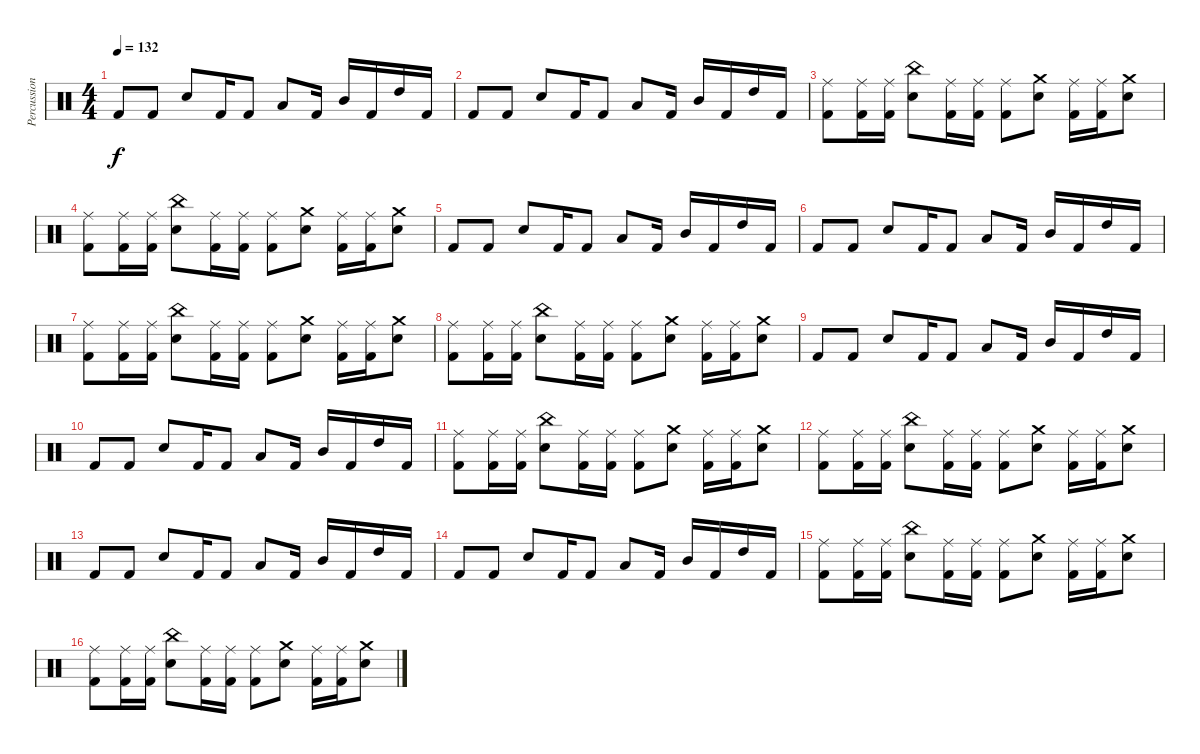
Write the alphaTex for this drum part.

\track ("Percussion" "Percussion") {instrument percussion}
\staff {score}
\articulation defaults
\ts (4 4)
\tempo 132
\clef neutral
\ks c "Kick (hit) 2".8{dy f} "Kick (hit) 2".8 "Electric Snare (hit)".8 "Kick (hit) 2".16 "Kick (hit) 2".8 "Low Tom (hit)".8 "Kick (hit) 2".16 "Mid Tom (hit)".16 "Kick (hit) 2".16 "High Tom (hit)".16 "Kick (hit) 2".16
|
"Kick (hit) 2".8 "Kick (hit) 2".8 "Electric Snare (hit)".8 "Kick (hit) 2".16 "Kick (hit) 2".8 "Low Tom (hit)".8 "Kick (hit) 2".16 "Mid Tom (hit)".16 "Kick (hit) 2".16 "High Tom (hit)".16 "Kick (hit) 2".16 |
("Ride (middle)" "Kick (hit) 2").8 ("Ride (middle)" "Kick (hit) 2").16 ("Ride (middle)" "Kick (hit) 2").16 ("China (hit)" "Electric Snare (hit)").8 ("Ride (middle)" "Kick (hit) 2").16 ("Ride (middle)" "Kick (hit) 2").16 ("Ride (middle)" "Kick (hit) 2").8 ("Crash medium (hit)" "Electric Snare (hit)").8 ("Ride (middle)" "Kick (hit) 2").16 ("Ride (middle)" "Kick (hit) 2").16 ("Crash medium (hit)" "Electric Snare (hit)").8 |
("Ride (middle)" "Kick (hit) 2").8 ("Ride (middle)" "Kick (hit) 2").16 ("Ride (middle)" "Kick (hit) 2").16 ("China (hit)" "Electric Snare (hit)").8 ("Ride (middle)" "Kick (hit) 2").16 ("Ride (middle)" "Kick (hit) 2").16 ("Ride (middle)" "Kick (hit) 2").8 ("Crash medium (hit)" "Electric Snare (hit)").8 ("Ride (middle)" "Kick (hit) 2").16 ("Ride (middle)" "Kick (hit) 2").16 ("Crash medium (hit)" "Electric Snare (hit)").8 |
"Kick (hit) 2".8 "Kick (hit) 2".8 "Electric Snare (hit)".8 "Kick (hit) 2".16 "Kick (hit) 2".8 "Low Tom (hit)".8 "Kick (hit) 2".16 "Mid Tom (hit)".16 "Kick (hit) 2".16 "High Tom (hit)".16 "Kick (hit) 2".16 |
"Kick (hit) 2".8 "Kick (hit) 2".8 "Electric Snare (hit)".8 "Kick (hit) 2".16 "Kick (hit) 2".8 "Low Tom (hit)".8 "Kick (hit) 2".16 "Mid Tom (hit)".16 "Kick (hit) 2".16 "High Tom (hit)".16 "Kick (hit) 2".16 |
("Ride (middle)" "Kick (hit) 2").8 ("Ride (middle)" "Kick (hit) 2").16 ("Ride (middle)" "Kick (hit) 2").16 ("China (hit)" "Electric Snare (hit)").8 ("Ride (middle)" "Kick (hit) 2").16 ("Ride (middle)" "Kick (hit) 2").16 ("Ride (middle)" "Kick (hit) 2").8 ("Crash medium (hit)" "Electric Snare (hit)").8 ("Ride (middle)" "Kick (hit) 2").16 ("Ride (middle)" "Kick (hit) 2").16 ("Crash medium (hit)" "Electric Snare (hit)").8 |
("Ride (middle)" "Kick (hit) 2").8 ("Ride (middle)" "Kick (hit) 2").16 ("Ride (middle)" "Kick (hit) 2").16 ("China (hit)" "Electric Snare (hit)").8 ("Ride (middle)" "Kick (hit) 2").16 ("Ride (middle)" "Kick (hit) 2").16 ("Ride (middle)" "Kick (hit) 2").8 ("Crash medium (hit)" "Electric Snare (hit)").8 ("Ride (middle)" "Kick (hit) 2").16 ("Ride (middle)" "Kick (hit) 2").16 ("Crash medium (hit)" "Electric Snare (hit)").8 |
"Kick (hit) 2".8 "Kick (hit) 2".8 "Electric Snare (hit)".8 "Kick (hit) 2".16 "Kick (hit) 2".8 "Low Tom (hit)".8 "Kick (hit) 2".16 "Mid Tom (hit)".16 "Kick (hit) 2".16 "High Tom (hit)".16 "Kick (hit) 2".16 |
"Kick (hit) 2".8 "Kick (hit) 2".8 "Electric Snare (hit)".8 "Kick (hit) 2".16 "Kick (hit) 2".8 "Low Tom (hit)".8 "Kick (hit) 2".16 "Mid Tom (hit)".16 "Kick (hit) 2".16 "High Tom (hit)".16 "Kick (hit) 2".16 |
("Ride (middle)" "Kick (hit) 2").8 ("Ride (middle)" "Kick (hit) 2").16 ("Ride (middle)" "Kick (hit) 2").16 ("China (hit)" "Electric Snare (hit)").8 ("Ride (middle)" "Kick (hit) 2").16 ("Ride (middle)" "Kick (hit) 2").16 ("Ride (middle)" "Kick (hit) 2").8 ("Crash medium (hit)" "Electric Snare (hit)").8 ("Ride (middle)" "Kick (hit) 2").16 ("Ride (middle)" "Kick (hit) 2").16 ("Crash medium (hit)" "Electric Snare (hit)").8 |
("Ride (middle)" "Kick (hit) 2").8 ("Ride (middle)" "Kick (hit) 2").16 ("Ride (middle)" "Kick (hit) 2").16 ("China (hit)" "Electric Snare (hit)").8 ("Ride (middle)" "Kick (hit) 2").16 ("Ride (middle)" "Kick (hit) 2").16 ("Ride (middle)" "Kick (hit) 2").8 ("Crash medium (hit)" "Electric Snare (hit)").8 ("Ride (middle)" "Kick (hit) 2").16 ("Ride (middle)" "Kick (hit) 2").16 ("Crash medium (hit)" "Electric Snare (hit)").8 |
"Kick (hit) 2".8 "Kick (hit) 2".8 "Electric Snare (hit)".8 "Kick (hit) 2".16 "Kick (hit) 2".8 "Low Tom (hit)".8 "Kick (hit) 2".16 "Mid Tom (hit)".16 "Kick (hit) 2".16 "High Tom (hit)".16 "Kick (hit) 2".16 |
"Kick (hit) 2".8 "Kick (hit) 2".8 "Electric Snare (hit)".8 "Kick (hit) 2".16 "Kick (hit) 2".8 "Low Tom (hit)".8 "Kick (hit) 2".16 "Mid Tom (hit)".16 "Kick (hit) 2".16 "High Tom (hit)".16 "Kick (hit) 2".16 |
("Ride (middle)" "Kick (hit) 2").8 ("Ride (middle)" "Kick (hit) 2").16 ("Ride (middle)" "Kick (hit) 2").16 ("China (hit)" "Electric Snare (hit)").8 ("Ride (middle)" "Kick (hit) 2").16 ("Ride (middle)" "Kick (hit) 2").16 ("Ride (middle)" "Kick (hit) 2").8 ("Crash medium (hit)" "Electric Snare (hit)").8 ("Ride (middle)" "Kick (hit) 2").16 ("Ride (middle)" "Kick (hit) 2").16 ("Crash medium (hit)" "Electric Snare (hit)").8 |
("Ride (middle)" "Kick (hit) 2").8 ("Ride (middle)" "Kick (hit) 2").16 ("Ride (middle)" "Kick (hit) 2").16 ("China (hit)" "Electric Snare (hit)").8 ("Ride (middle)" "Kick (hit) 2").16 ("Ride (middle)" "Kick (hit) 2").16 ("Ride (middle)" "Kick (hit) 2").8 ("Crash medium (hit)" "Electric Snare (hit)").8 ("Ride (middle)" "Kick (hit) 2").16 ("Ride (middle)" "Kick (hit) 2").16 ("Crash medium (hit)" "Electric Snare (hit)").8
